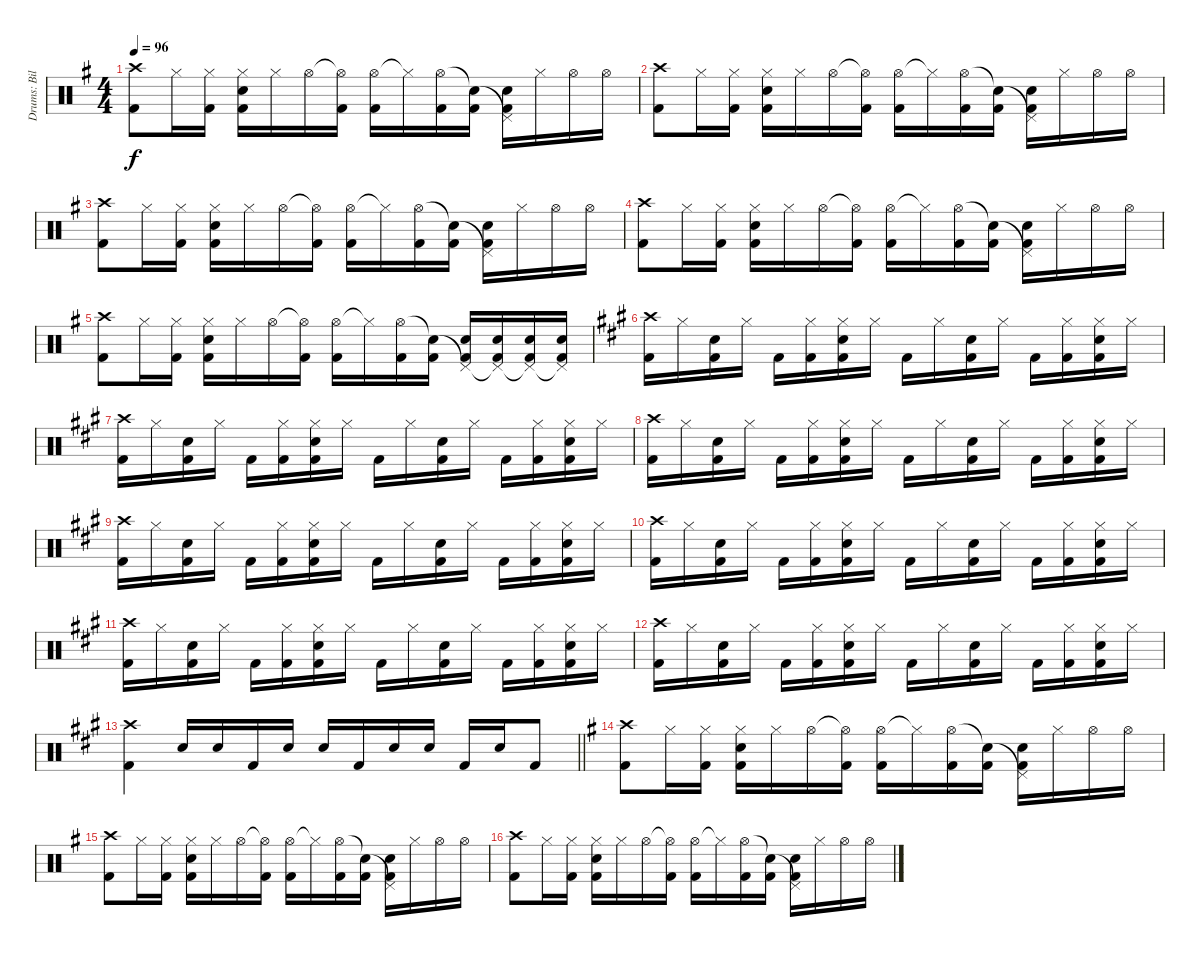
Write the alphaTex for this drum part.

\track ("Drums: Bill" "Drums: Bil") {instrument percussion}
\staff {score}
\articulation defaults
\ts (4 4)
\tempo 96
\clef neutral
\ks g
("Crash high (hit)" "Kick (hit) 2").8{dy f} "Hi-Hat (closed)".16 ("Hi-Hat (closed)" "Kick (hit) 2").16 ("Hi-Hat (closed)" "Snare (hit) 2" "Kick (hit) 2").16 "Hi-Hat (closed)".16 "Hi-Hat (open)".16 ("Hi-Hat (open)"{t} "Kick (hit) 2").16 ("Hi-Hat (open)" "Kick (hit) 2").16 "Hi-Hat (closed)"{t}.16 ("Hi-Hat (open)" "Kick (hit) 2").16 ("Snare (hit)"{t} "Kick (hit) 2").16 ("Pedal Hi-Hat (hit)"{t} "Snare (hit) 2" "Kick (hit) 2").16 "Hi-Hat (closed)".16 "Hi-Hat (open)".16 "Hi-Hat (open)".16 |
("Crash high (hit)" "Kick (hit) 2").8 "Hi-Hat (closed)".16 ("Hi-Hat (closed)" "Kick (hit) 2").16 ("Hi-Hat (closed)" "Snare (hit) 2" "Kick (hit) 2").16 "Hi-Hat (closed)".16 "Hi-Hat (open)".16 ("Hi-Hat (open)"{t} "Kick (hit) 2").16 ("Hi-Hat (open)" "Kick (hit) 2").16 "Hi-Hat (closed)"{t}.16 ("Hi-Hat (open)" "Kick (hit) 2").16 ("Snare (hit)"{t} "Kick (hit) 2").16 ("Pedal Hi-Hat (hit)"{t} "Snare (hit) 2" "Kick (hit) 2").16 "Hi-Hat (closed)".16 "Hi-Hat (open)".16 "Hi-Hat (open)".16 |
("Crash high (hit)" "Kick (hit) 2").8 "Hi-Hat (closed)".16 ("Hi-Hat (closed)" "Kick (hit) 2").16 ("Hi-Hat (closed)" "Snare (hit) 2" "Kick (hit) 2").16 "Hi-Hat (closed)".16 "Hi-Hat (open)".16 ("Hi-Hat (open)"{t} "Kick (hit) 2").16 ("Hi-Hat (open)" "Kick (hit) 2").16 "Hi-Hat (closed)"{t}.16 ("Hi-Hat (open)" "Kick (hit) 2").16 ("Snare (hit)"{t} "Kick (hit) 2").16 ("Pedal Hi-Hat (hit)"{t} "Snare (hit) 2" "Kick (hit) 2").16 "Hi-Hat (closed)".16 "Hi-Hat (open)".16 "Hi-Hat (open)".16 |
("Crash high (hit)" "Kick (hit) 2").8 "Hi-Hat (closed)".16 ("Hi-Hat (closed)" "Kick (hit) 2").16 ("Hi-Hat (closed)" "Snare (hit) 2" "Kick (hit) 2").16 "Hi-Hat (closed)".16 "Hi-Hat (open)".16 ("Hi-Hat (open)"{t} "Kick (hit) 2").16 ("Hi-Hat (open)" "Kick (hit) 2").16 "Hi-Hat (closed)"{t}.16 ("Hi-Hat (open)" "Kick (hit) 2").16 ("Snare (hit)"{t} "Kick (hit) 2").16 ("Pedal Hi-Hat (hit)"{t} "Snare (hit) 2" "Kick (hit) 2").16 "Hi-Hat (closed)".16 "Hi-Hat (open)".16 "Hi-Hat (open)".16 |
("Crash high (hit)" "Kick (hit) 2").8 "Hi-Hat (closed)".16 ("Hi-Hat (closed)" "Kick (hit) 2").16 ("Hi-Hat (closed)" "Snare (hit) 2" "Kick (hit) 2").16 "Hi-Hat (closed)".16 "Hi-Hat (open)".16 ("Hi-Hat (open)"{t} "Kick (hit) 2").16 ("Hi-Hat (open)" "Kick (hit) 2").16 "Hi-Hat (closed)"{t}.16 ("Hi-Hat (open)" "Kick (hit) 2").16 ("Snare (hit)"{t} "Kick (hit) 2").16 ("Pedal Hi-Hat (hit)"{t} "Snare (hit) 2" "Kick (hit) 2").16 ("Pedal Hi-Hat (hit)"{t} "Snare (hit) 2" "Kick (hit) 2").16 ("Pedal Hi-Hat (hit)"{t} "Snare (hit) 2" "Kick (hit) 2").16 ("Pedal Hi-Hat (hit)"{t} "Snare (hit) 2" "Kick (hit) 2").16 |
\ks a
("Crash high (hit)" "Kick (hit) 2").16 "Hi-Hat (closed)".16 ("Snare (hit) 2" "Kick (hit) 2").16 "Hi-Hat (closed)".16 "Kick (hit) 2".16 ("Hi-Hat (closed)" "Kick (hit) 2").16 ("Hi-Hat (closed)" "Snare (hit) 2" "Kick (hit) 2").16 "Hi-Hat (closed)".16 "Kick (hit) 2".16 "Hi-Hat (closed)".16 ("Snare (hit) 2" "Kick (hit) 2").16 "Hi-Hat (closed)".16 "Kick (hit) 2".16 ("Hi-Hat (closed)" "Kick (hit) 2").16 ("Hi-Hat (closed)" "Snare (hit) 2" "Kick (hit) 2").16 "Hi-Hat (closed)".16 |
("Crash high (hit)" "Kick (hit) 2").16 "Hi-Hat (closed)".16 ("Snare (hit) 2" "Kick (hit) 2").16 "Hi-Hat (closed)".16 "Kick (hit) 2".16 ("Hi-Hat (closed)" "Kick (hit) 2").16 ("Hi-Hat (closed)" "Snare (hit) 2" "Kick (hit) 2").16 "Hi-Hat (closed)".16 "Kick (hit) 2".16 "Hi-Hat (closed)".16 ("Snare (hit) 2" "Kick (hit) 2").16 "Hi-Hat (closed)".16 "Kick (hit) 2".16 ("Hi-Hat (closed)" "Kick (hit) 2").16 ("Hi-Hat (closed)" "Snare (hit) 2" "Kick (hit) 2").16 "Hi-Hat (closed)".16 |
("Crash high (hit)" "Kick (hit) 2").16 "Hi-Hat (closed)".16 ("Snare (hit) 2" "Kick (hit) 2").16 "Hi-Hat (closed)".16 "Kick (hit) 2".16 ("Hi-Hat (closed)" "Kick (hit) 2").16 ("Hi-Hat (closed)" "Snare (hit) 2" "Kick (hit) 2").16 "Hi-Hat (closed)".16 "Kick (hit) 2".16 "Hi-Hat (closed)".16 ("Snare (hit) 2" "Kick (hit) 2").16 "Hi-Hat (closed)".16 "Kick (hit) 2".16 ("Hi-Hat (closed)" "Kick (hit) 2").16 ("Hi-Hat (closed)" "Snare (hit) 2" "Kick (hit) 2").16 "Hi-Hat (closed)".16 |
("Crash high (hit)" "Kick (hit) 2").16 "Hi-Hat (closed)".16 ("Snare (hit) 2" "Kick (hit) 2").16 "Hi-Hat (closed)".16 "Kick (hit) 2".16 ("Hi-Hat (closed)" "Kick (hit) 2").16 ("Hi-Hat (closed)" "Snare (hit) 2" "Kick (hit) 2").16 "Hi-Hat (closed)".16 "Kick (hit) 2".16 "Hi-Hat (closed)".16 ("Snare (hit) 2" "Kick (hit) 2").16 "Hi-Hat (closed)".16 "Kick (hit) 2".16 ("Hi-Hat (closed)" "Kick (hit) 2").16 ("Hi-Hat (closed)" "Snare (hit) 2" "Kick (hit) 2").16 "Hi-Hat (closed)".16 |
("Crash high (hit)" "Kick (hit) 2").16 "Hi-Hat (closed)".16 ("Snare (hit) 2" "Kick (hit) 2").16 "Hi-Hat (closed)".16 "Kick (hit) 2".16 ("Hi-Hat (closed)" "Kick (hit) 2").16 ("Hi-Hat (closed)" "Snare (hit) 2" "Kick (hit) 2").16 "Hi-Hat (closed)".16 "Kick (hit) 2".16 "Hi-Hat (closed)".16 ("Snare (hit) 2" "Kick (hit) 2").16 "Hi-Hat (closed)".16 "Kick (hit) 2".16 ("Hi-Hat (closed)" "Kick (hit) 2").16 ("Hi-Hat (closed)" "Snare (hit) 2" "Kick (hit) 2").16 "Hi-Hat (closed)".16 |
("Crash high (hit)" "Kick (hit) 2").16 "Hi-Hat (closed)".16 ("Snare (hit) 2" "Kick (hit) 2").16 "Hi-Hat (closed)".16 "Kick (hit) 2".16 ("Hi-Hat (closed)" "Kick (hit) 2").16 ("Hi-Hat (closed)" "Snare (hit) 2" "Kick (hit) 2").16 "Hi-Hat (closed)".16 "Kick (hit) 2".16 "Hi-Hat (closed)".16 ("Snare (hit) 2" "Kick (hit) 2").16 "Hi-Hat (closed)".16 "Kick (hit) 2".16 ("Hi-Hat (closed)" "Kick (hit) 2").16 ("Hi-Hat (closed)" "Snare (hit) 2" "Kick (hit) 2").16 "Hi-Hat (closed)".16 |
("Crash high (hit)" "Kick (hit) 2").16 "Hi-Hat (closed)".16 ("Snare (hit) 2" "Kick (hit) 2").16 "Hi-Hat (closed)".16 "Kick (hit) 2".16 ("Hi-Hat (closed)" "Kick (hit) 2").16 ("Hi-Hat (closed)" "Snare (hit) 2" "Kick (hit) 2").16 "Hi-Hat (closed)".16 "Kick (hit) 2".16 "Hi-Hat (closed)".16 ("Snare (hit) 2" "Kick (hit) 2").16 "Hi-Hat (closed)".16 "Kick (hit) 2".16 ("Hi-Hat (closed)" "Kick (hit) 2").16 ("Hi-Hat (closed)" "Snare (hit) 2" "Kick (hit) 2").16 "Hi-Hat (closed)".16 |
\barLineRight lightlight
("Crash high (hit)" "Kick (hit) 2").4 "Electric Snare (hit)".16 "Electric Snare (hit)".16 "Kick (hit) 2".16 "Electric Snare (hit)".16 "Electric Snare (hit)".16 "Kick (hit) 2".16 "Electric Snare (hit)".16 "Electric Snare (hit)".16 "Kick (hit) 2".16 "Electric Snare (hit)".16 "Kick (hit) 2".8 |
\ks g
("Crash high (hit)" "Kick (hit) 2").8 "Hi-Hat (closed)".16 ("Hi-Hat (closed)" "Kick (hit) 2").16 ("Hi-Hat (closed)" "Snare (hit) 2" "Kick (hit) 2").16 "Hi-Hat (closed)".16 "Hi-Hat (open)".16 ("Hi-Hat (open)"{t} "Kick (hit) 2").16 ("Hi-Hat (open)" "Kick (hit) 2").16 "Hi-Hat (closed)"{t}.16 ("Hi-Hat (open)" "Kick (hit) 2").16 ("Snare (hit)"{t} "Kick (hit) 2").16 ("Pedal Hi-Hat (hit)"{t} "Snare (hit) 2" "Kick (hit) 2").16 "Hi-Hat (closed)".16 "Hi-Hat (open)".16 "Hi-Hat (open)".16 |
("Crash high (hit)" "Kick (hit) 2").8 "Hi-Hat (closed)".16 ("Hi-Hat (closed)" "Kick (hit) 2").16 ("Hi-Hat (closed)" "Snare (hit) 2" "Kick (hit) 2").16 "Hi-Hat (closed)".16 "Hi-Hat (open)".16 ("Hi-Hat (open)"{t} "Kick (hit) 2").16 ("Hi-Hat (open)" "Kick (hit) 2").16 "Hi-Hat (closed)"{t}.16 ("Hi-Hat (open)" "Kick (hit) 2").16 ("Snare (hit)"{t} "Kick (hit) 2").16 ("Pedal Hi-Hat (hit)"{t} "Snare (hit) 2" "Kick (hit) 2").16 "Hi-Hat (closed)".16 "Hi-Hat (open)".16 "Hi-Hat (open)".16 |
("Crash high (hit)" "Kick (hit) 2").8 "Hi-Hat (closed)".16 ("Hi-Hat (closed)" "Kick (hit) 2").16 ("Hi-Hat (closed)" "Snare (hit) 2" "Kick (hit) 2").16 "Hi-Hat (closed)".16 "Hi-Hat (open)".16 ("Hi-Hat (open)"{t} "Kick (hit) 2").16 ("Hi-Hat (open)" "Kick (hit) 2").16 "Hi-Hat (closed)"{t}.16 ("Hi-Hat (open)" "Kick (hit) 2").16 ("Snare (hit)"{t} "Kick (hit) 2").16 ("Pedal Hi-Hat (hit)"{t} "Snare (hit) 2" "Kick (hit) 2").16 "Hi-Hat (closed)".16 "Hi-Hat (open)".16 "Hi-Hat (open)".16
